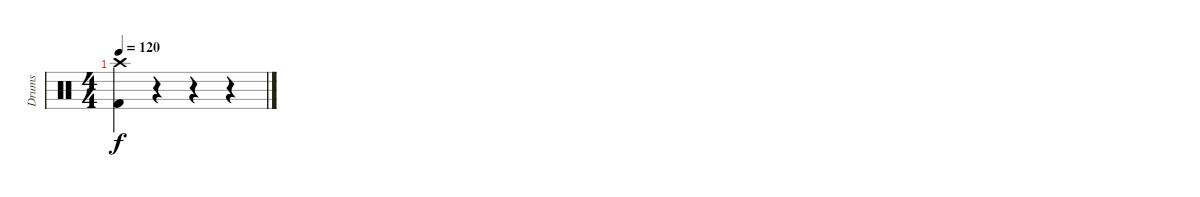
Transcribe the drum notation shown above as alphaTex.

\track ("Drums" "Drums") {instrument percussion}
\staff {score}
\articulation defaults
\ts (4 4)
\tempo 120
\clef neutral
\ks c
("Crash high (hit)" "Kick (hit) 2").4{dy f} r.4 r.4 r.4
